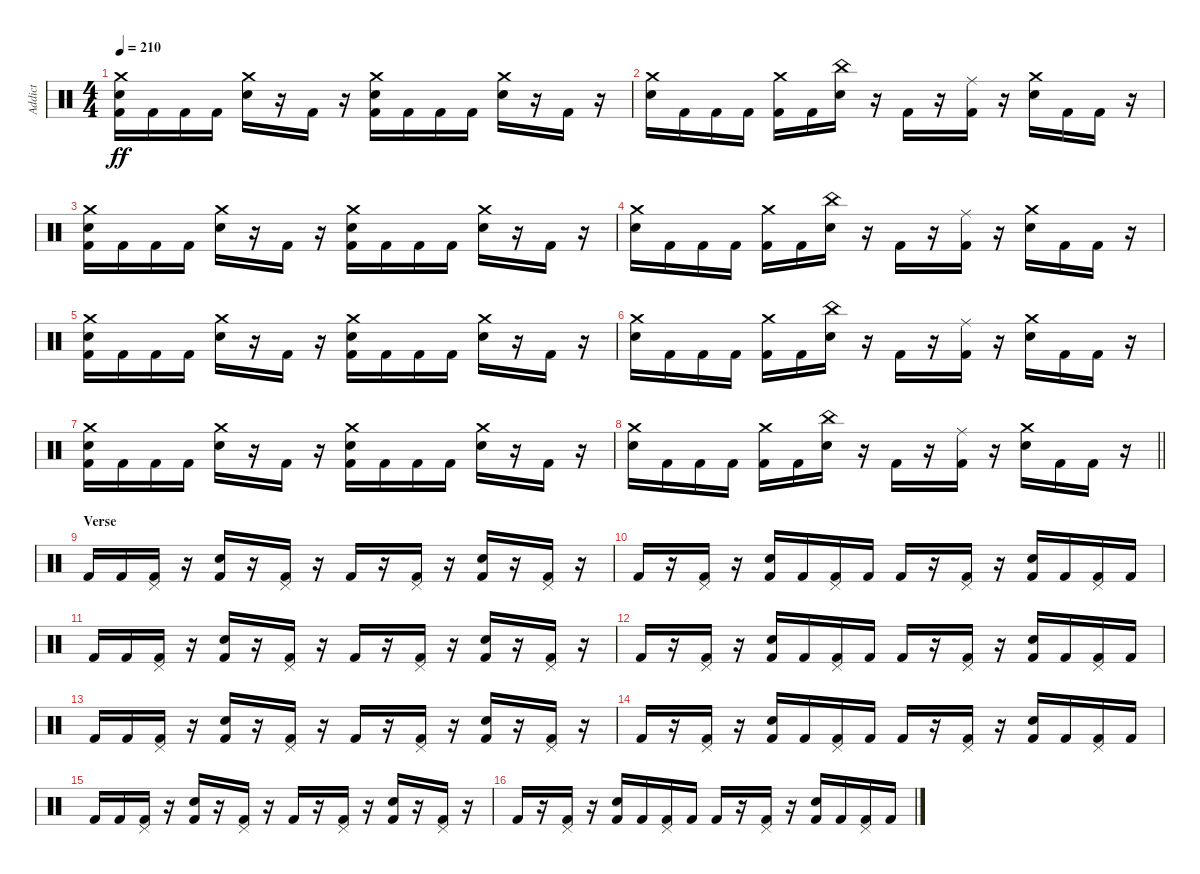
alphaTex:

\track ("Addict" "Addict") {instrument percussion}
\staff {score}
\articulation defaults
\ts (4 4)
\tempo 210
\clef neutral
\ks c
("Kick (hit) 2" "Snare (hit) 2" "Crash medium (hit)").16{dy ff} "Kick (hit) 2".16 "Kick (hit) 2".16 "Kick (hit) 2".16 ("Snare (hit) 2" "Crash medium (hit)").16 r.16 "Kick (hit) 2".16 r.16 ("Kick (hit) 2" "Snare (hit) 2" "Crash medium (hit)").16 "Kick (hit) 2".16 "Kick (hit) 2".16 "Kick (hit) 2".16 ("Snare (hit) 2" "Crash medium (hit)").16 r.16 "Kick (hit) 2".16 r.16 |
("Snare (hit) 2" "Crash medium (hit)").16 "Kick (hit) 2".16 "Kick (hit) 2".16 "Kick (hit) 2".16 ("Kick (hit) 2" "Crash medium (hit)").16 "Kick (hit) 2".16 ("Snare (hit) 2" "China (hit)").16 r.16 "Kick (hit) 2".16 r.16 ("Kick (hit) 2" "Ride (middle)").16 r.16 ("Snare (hit) 2" "Crash medium (hit)").16 "Kick (hit) 2".16 "Kick (hit) 2".16 r.16 |
("Kick (hit) 2" "Snare (hit) 2" "Crash medium (hit)").16 "Kick (hit) 2".16 "Kick (hit) 2".16 "Kick (hit) 2".16 ("Snare (hit) 2" "Crash medium (hit)").16 r.16 "Kick (hit) 2".16 r.16 ("Kick (hit) 2" "Snare (hit) 2" "Crash medium (hit)").16 "Kick (hit) 2".16 "Kick (hit) 2".16 "Kick (hit) 2".16 ("Snare (hit) 2" "Crash medium (hit)").16 r.16 "Kick (hit) 2".16 r.16 |
("Snare (hit) 2" "Crash medium (hit)").16 "Kick (hit) 2".16 "Kick (hit) 2".16 "Kick (hit) 2".16 ("Kick (hit) 2" "Crash medium (hit)").16 "Kick (hit) 2".16 ("Snare (hit) 2" "China (hit)").16 r.16 "Kick (hit) 2".16 r.16 ("Kick (hit) 2" "Ride (middle)").16 r.16 ("Snare (hit) 2" "Crash medium (hit)").16 "Kick (hit) 2".16 "Kick (hit) 2".16 r.16 |
("Kick (hit) 2" "Snare (hit) 2" "Crash medium (hit)").16 "Kick (hit) 2".16 "Kick (hit) 2".16 "Kick (hit) 2".16 ("Snare (hit) 2" "Crash medium (hit)").16 r.16 "Kick (hit) 2".16 r.16 ("Kick (hit) 2" "Snare (hit) 2" "Crash medium (hit)").16 "Kick (hit) 2".16 "Kick (hit) 2".16 "Kick (hit) 2".16 ("Snare (hit) 2" "Crash medium (hit)").16 r.16 "Kick (hit) 2".16 r.16 |
("Snare (hit) 2" "Crash medium (hit)").16 "Kick (hit) 2".16 "Kick (hit) 2".16 "Kick (hit) 2".16 ("Kick (hit) 2" "Crash medium (hit)").16 "Kick (hit) 2".16 ("Snare (hit) 2" "China (hit)").16 r.16 "Kick (hit) 2".16 r.16 ("Kick (hit) 2" "Ride (middle)").16 r.16 ("Snare (hit) 2" "Crash medium (hit)").16 "Kick (hit) 2".16 "Kick (hit) 2".16 r.16 |
("Kick (hit) 2" "Snare (hit) 2" "Crash medium (hit)").16 "Kick (hit) 2".16 "Kick (hit) 2".16 "Kick (hit) 2".16 ("Snare (hit) 2" "Crash medium (hit)").16 r.16 "Kick (hit) 2".16 r.16 ("Kick (hit) 2" "Snare (hit) 2" "Crash medium (hit)").16 "Kick (hit) 2".16 "Kick (hit) 2".16 "Kick (hit) 2".16 ("Snare (hit) 2" "Crash medium (hit)").16 r.16 "Kick (hit) 2".16 r.16 |
\barLineRight lightlight
("Snare (hit) 2" "Crash medium (hit)").16 "Kick (hit) 2".16 "Kick (hit) 2".16 "Kick (hit) 2".16 ("Kick (hit) 2" "Crash medium (hit)").16 "Kick (hit) 2".16 ("Snare (hit) 2" "China (hit)").16 r.16 "Kick (hit) 2".16 r.16 ("Kick (hit) 2" "Ride (middle)").16 r.16 ("Snare (hit) 2" "Crash medium (hit)").16 "Kick (hit) 2".16 "Kick (hit) 2".16 r.16 |
\section ("" "Verse")
"Kick (hit) 2".16 "Kick (hit) 2".16 ("Kick (hit) 2" "Pedal Hi-Hat (hit)").16 r.16 ("Kick (hit) 2" "Snare (hit) 2").16 r.16 ("Kick (hit) 2" "Pedal Hi-Hat (hit)").16 r.16 "Kick (hit) 2".16 r.16 ("Kick (hit) 2" "Pedal Hi-Hat (hit)").16 r.16 ("Kick (hit) 2" "Snare (hit) 2").16 r.16 ("Kick (hit) 2" "Pedal Hi-Hat (hit)").16 r.16 |
"Kick (hit) 2".16 r.16 ("Kick (hit) 2" "Pedal Hi-Hat (hit)").16 r.16 ("Kick (hit) 2" "Snare (hit) 2").16 "Kick (hit) 2".16 ("Kick (hit) 2" "Pedal Hi-Hat (hit)").16 "Kick (hit) 2".16 "Kick (hit) 2".16 r.16 ("Kick (hit) 2" "Pedal Hi-Hat (hit)").16 r.16 ("Kick (hit) 2" "Snare (hit) 2").16 "Kick (hit) 2".16 ("Kick (hit) 2" "Pedal Hi-Hat (hit)").16 "Kick (hit) 2".16 |
"Kick (hit) 2".16 "Kick (hit) 2".16 ("Kick (hit) 2" "Pedal Hi-Hat (hit)").16 r.16 ("Kick (hit) 2" "Snare (hit) 2").16 r.16 ("Kick (hit) 2" "Pedal Hi-Hat (hit)").16 r.16 "Kick (hit) 2".16 r.16 ("Kick (hit) 2" "Pedal Hi-Hat (hit)").16 r.16 ("Kick (hit) 2" "Snare (hit) 2").16 r.16 ("Kick (hit) 2" "Pedal Hi-Hat (hit)").16 r.16 |
"Kick (hit) 2".16 r.16 ("Kick (hit) 2" "Pedal Hi-Hat (hit)").16 r.16 ("Kick (hit) 2" "Snare (hit) 2").16 "Kick (hit) 2".16 ("Kick (hit) 2" "Pedal Hi-Hat (hit)").16 "Kick (hit) 2".16 "Kick (hit) 2".16 r.16 ("Kick (hit) 2" "Pedal Hi-Hat (hit)").16 r.16 ("Kick (hit) 2" "Snare (hit) 2").16 "Kick (hit) 2".16 ("Kick (hit) 2" "Pedal Hi-Hat (hit)").16 "Kick (hit) 2".16 |
"Kick (hit) 2".16 "Kick (hit) 2".16 ("Kick (hit) 2" "Pedal Hi-Hat (hit)").16 r.16 ("Kick (hit) 2" "Snare (hit) 2").16 r.16 ("Kick (hit) 2" "Pedal Hi-Hat (hit)").16 r.16 "Kick (hit) 2".16 r.16 ("Kick (hit) 2" "Pedal Hi-Hat (hit)").16 r.16 ("Kick (hit) 2" "Snare (hit) 2").16 r.16 ("Kick (hit) 2" "Pedal Hi-Hat (hit)").16 r.16 |
"Kick (hit) 2".16 r.16 ("Kick (hit) 2" "Pedal Hi-Hat (hit)").16 r.16 ("Kick (hit) 2" "Snare (hit) 2").16 "Kick (hit) 2".16 ("Kick (hit) 2" "Pedal Hi-Hat (hit)").16 "Kick (hit) 2".16 "Kick (hit) 2".16 r.16 ("Kick (hit) 2" "Pedal Hi-Hat (hit)").16 r.16 ("Kick (hit) 2" "Snare (hit) 2").16 "Kick (hit) 2".16 ("Kick (hit) 2" "Pedal Hi-Hat (hit)").16 "Kick (hit) 2".16 |
"Kick (hit) 2".16 "Kick (hit) 2".16 ("Kick (hit) 2" "Pedal Hi-Hat (hit)").16 r.16 ("Kick (hit) 2" "Snare (hit) 2").16 r.16 ("Kick (hit) 2" "Pedal Hi-Hat (hit)").16 r.16 "Kick (hit) 2".16 r.16 ("Kick (hit) 2" "Pedal Hi-Hat (hit)").16 r.16 ("Kick (hit) 2" "Snare (hit) 2").16 r.16 ("Kick (hit) 2" "Pedal Hi-Hat (hit)").16 r.16 |
"Kick (hit) 2".16 r.16 ("Kick (hit) 2" "Pedal Hi-Hat (hit)").16 r.16 ("Kick (hit) 2" "Snare (hit) 2").16 "Kick (hit) 2".16 ("Kick (hit) 2" "Pedal Hi-Hat (hit)").16 "Kick (hit) 2".16 "Kick (hit) 2".16 r.16 ("Kick (hit) 2" "Pedal Hi-Hat (hit)").16 r.16 ("Kick (hit) 2" "Snare (hit) 2").16 "Kick (hit) 2".16 ("Kick (hit) 2" "Pedal Hi-Hat (hit)").16 "Kick (hit) 2".16
